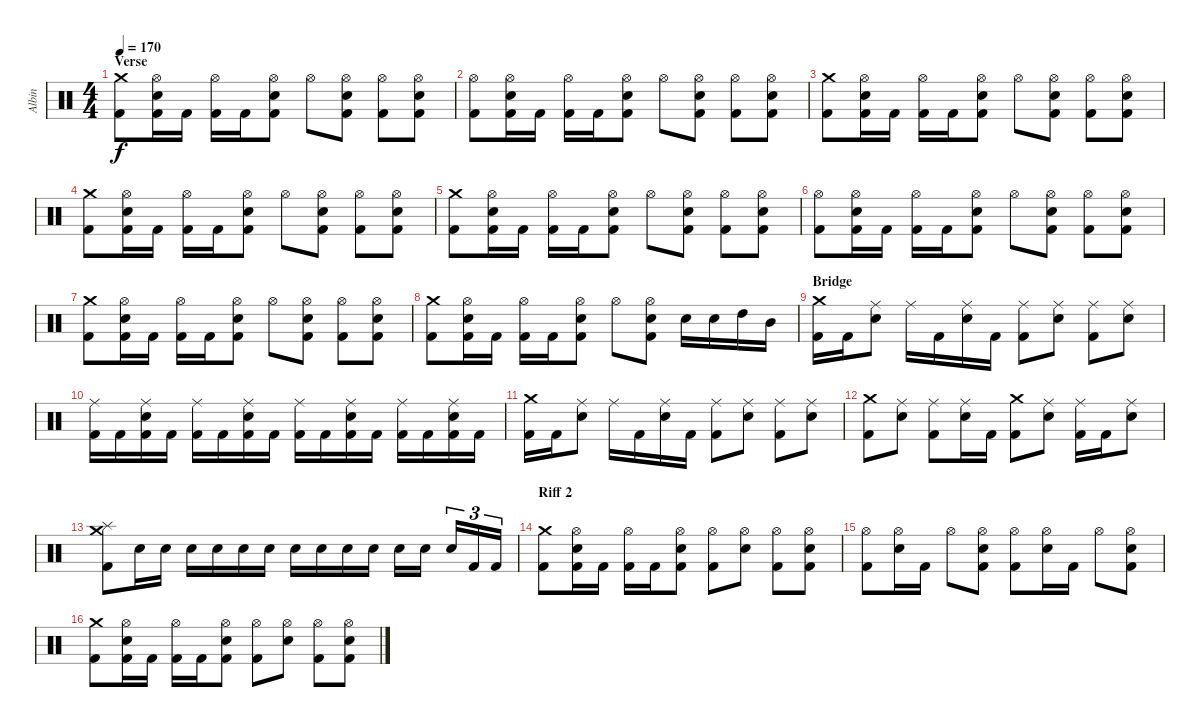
\track ("Albin" "Albin") {instrument percussion}
\staff {score}
\articulation defaults
\ts (4 4)
\section ("" "Verse")
\tempo 170
\clef neutral
\ks c
("Crash medium (hit)" "Kick (hit) 2").8{dy f} ("Hi-Hat (open)" "Electric Snare (hit)" "Kick (hit) 2").16 "Kick (hit) 2".16 ("Hi-Hat (open)" "Kick (hit) 2").16 "Kick (hit) 2".16 ("Hi-Hat (open)" "Electric Snare (hit)" "Kick (hit) 2").8 "Hi-Hat (open)".8 ("Hi-Hat (open)" "Electric Snare (hit)" "Kick (hit) 2").8 ("Hi-Hat (open)" "Kick (hit) 2").8 ("Hi-Hat (open)" "Electric Snare (hit)" "Kick (hit) 2").8 |
("Hi-Hat (open)" "Kick (hit) 2").8 ("Hi-Hat (open)" "Electric Snare (hit)" "Kick (hit) 2").16 "Kick (hit) 2".16 ("Hi-Hat (open)" "Kick (hit) 2").16 "Kick (hit) 2".16 ("Hi-Hat (open)" "Electric Snare (hit)" "Kick (hit) 2").8 "Hi-Hat (open)".8 ("Hi-Hat (open)" "Electric Snare (hit)" "Kick (hit) 2").8 ("Hi-Hat (open)" "Kick (hit) 2").8 ("Hi-Hat (open)" "Electric Snare (hit)" "Kick (hit) 2").8 |
("Crash medium (hit)" "Kick (hit) 2").8 ("Hi-Hat (open)" "Electric Snare (hit)" "Kick (hit) 2").16 "Kick (hit) 2".16 ("Hi-Hat (open)" "Kick (hit) 2").16 "Kick (hit) 2".16 ("Hi-Hat (open)" "Electric Snare (hit)" "Kick (hit) 2").8 "Hi-Hat (open)".8 ("Hi-Hat (open)" "Electric Snare (hit)" "Kick (hit) 2").8 ("Hi-Hat (open)" "Kick (hit) 2").8 ("Hi-Hat (open)" "Electric Snare (hit)" "Kick (hit) 2").8 |
("Crash medium (hit)" "Kick (hit) 2").8 ("Hi-Hat (open)" "Electric Snare (hit)" "Kick (hit) 2").16 "Kick (hit) 2".16 ("Hi-Hat (open)" "Kick (hit) 2").16 "Kick (hit) 2".16 ("Hi-Hat (open)" "Electric Snare (hit)" "Kick (hit) 2").8 "Hi-Hat (open)".8 ("Hi-Hat (open)" "Electric Snare (hit)" "Kick (hit) 2").8 ("Hi-Hat (open)" "Kick (hit) 2").8 ("Hi-Hat (open)" "Electric Snare (hit)" "Kick (hit) 2").8 |
("Crash medium (hit)" "Kick (hit) 2").8 ("Hi-Hat (open)" "Electric Snare (hit)" "Kick (hit) 2").16 "Kick (hit) 2".16 ("Hi-Hat (open)" "Kick (hit) 2").16 "Kick (hit) 2".16 ("Hi-Hat (open)" "Electric Snare (hit)" "Kick (hit) 2").8 "Hi-Hat (open)".8 ("Hi-Hat (open)" "Electric Snare (hit)" "Kick (hit) 2").8 ("Hi-Hat (open)" "Kick (hit) 2").8 ("Hi-Hat (open)" "Electric Snare (hit)" "Kick (hit) 2").8 |
("Hi-Hat (open)" "Kick (hit) 2").8 ("Hi-Hat (open)" "Electric Snare (hit)" "Kick (hit) 2").16 "Kick (hit) 2".16 ("Hi-Hat (open)" "Kick (hit) 2").16 "Kick (hit) 2".16 ("Hi-Hat (open)" "Electric Snare (hit)" "Kick (hit) 2").8 "Hi-Hat (open)".8 ("Hi-Hat (open)" "Electric Snare (hit)" "Kick (hit) 2").8 ("Hi-Hat (open)" "Kick (hit) 2").8 ("Hi-Hat (open)" "Electric Snare (hit)" "Kick (hit) 2").8 |
("Crash medium (hit)" "Kick (hit) 2").8 ("Hi-Hat (open)" "Electric Snare (hit)" "Kick (hit) 2").16 "Kick (hit) 2".16 ("Hi-Hat (open)" "Kick (hit) 2").16 "Kick (hit) 2".16 ("Hi-Hat (open)" "Electric Snare (hit)" "Kick (hit) 2").8 "Hi-Hat (open)".8 ("Hi-Hat (open)" "Electric Snare (hit)" "Kick (hit) 2").8 ("Hi-Hat (open)" "Kick (hit) 2").8 ("Hi-Hat (open)" "Electric Snare (hit)" "Kick (hit) 2").8 |
("Crash medium (hit)" "Kick (hit) 2").8 ("Hi-Hat (open)" "Electric Snare (hit)" "Kick (hit) 2").16 "Kick (hit) 2".16 ("Hi-Hat (open)" "Kick (hit) 2").16 "Kick (hit) 2".16 ("Hi-Hat (open)" "Electric Snare (hit)" "Kick (hit) 2").8 "Hi-Hat (open)".8 ("Hi-Hat (open)" "Electric Snare (hit)" "Kick (hit) 2").8 "Electric Snare (hit)".16 "Electric Snare (hit)".16 "High Tom (hit)".16 "Mid Tom (hit)".16 |
\section ("" "Bridge")
("Crash medium (hit)" "Kick (hit) 2").16 "Kick (hit) 2".16 ("Ride (middle)" "Electric Snare (hit)").8 "Ride (middle)".16 "Kick (hit) 2".16 ("Ride (middle)" "Electric Snare (hit)").16 "Kick (hit) 2".16 ("Ride (middle)" "Kick (hit) 2").8 ("Ride (middle)" "Electric Snare (hit)").8 ("Ride (middle)" "Kick (hit) 2").8 ("Ride (middle)" "Electric Snare (hit)").8 |
("Ride (middle)" "Kick (hit) 2").16 "Kick (hit) 2".16 ("Ride (middle)" "Electric Snare (hit)" "Kick (hit) 2").16 "Kick (hit) 2".16 ("Ride (middle)" "Kick (hit) 2").16 "Kick (hit) 2".16 ("Ride (middle)" "Electric Snare (hit)" "Kick (hit) 2").16 "Kick (hit) 2".16 ("Ride (middle)" "Kick (hit) 2").16 "Kick (hit) 2".16 ("Ride (middle)" "Electric Snare (hit)" "Kick (hit) 2").16 "Kick (hit) 2".16 ("Ride (middle)" "Kick (hit) 2").16 "Kick (hit) 2".16 ("Ride (middle)" "Electric Snare (hit)" "Kick (hit) 2").16 "Kick (hit) 2".16 |
("Crash medium (hit)" "Kick (hit) 2").16 "Kick (hit) 2".16 ("Ride (middle)" "Electric Snare (hit)").8 "Ride (middle)".16 "Kick (hit) 2".16 ("Ride (middle)" "Electric Snare (hit)").16 "Kick (hit) 2".16 ("Ride (middle)" "Kick (hit) 2").8 ("Ride (middle)" "Electric Snare (hit)").8 ("Ride (middle)" "Kick (hit) 2").8 ("Ride (middle)" "Electric Snare (hit)").8 |
("Crash medium (hit)" "Kick (hit) 2").8 ("Ride (middle)" "Electric Snare (hit)").8 ("Ride (middle)" "Kick (hit) 2").8 ("Ride (middle)" "Electric Snare (hit)").16 "Kick (hit) 2".16 ("Crash medium (hit)" "Kick (hit) 2").8 ("Ride (middle)" "Electric Snare (hit)").8 ("Ride (middle)" "Kick (hit) 2").16 "Kick (hit) 2".16 ("Ride (middle)" "Electric Snare (hit)").8 |
("Crash medium (hit)" "Splash (hit)" "Kick (hit) 2").8 "Electric Snare (hit)".16 "Electric Snare (hit)".16 "Electric Snare (hit)".16 "Electric Snare (hit)".16 "Electric Snare (hit)".16 "Electric Snare (hit)".16 "Electric Snare (hit)".16 "Electric Snare (hit)".16 "Electric Snare (hit)".16 "Electric Snare (hit)".16 "Electric Snare (hit)".16 "Electric Snare (hit)".16 "Electric Snare (hit)".16{tu (3 2)} "Kick (hit) 2".16{tu (3 2)} "Kick (hit) 2".16{tu (3 2)} |
\section ("" "Riff 2")
("Crash medium (hit)" "Kick (hit) 2").8 ("Hi-Hat (open)" "Electric Snare (hit)" "Kick (hit) 2").16 "Kick (hit) 2".16 ("Hi-Hat (open)" "Kick (hit) 2").16 "Kick (hit) 2".16 ("Hi-Hat (open)" "Electric Snare (hit)" "Kick (hit) 2").8 ("Hi-Hat (open)" "Kick (hit) 2").8 ("Hi-Hat (open)" "Electric Snare (hit)").8 ("Hi-Hat (open)" "Kick (hit) 2").8 ("Hi-Hat (open)" "Electric Snare (hit)" "Kick (hit) 2").8 |
("Hi-Hat (open)" "Kick (hit) 2").8 ("Hi-Hat (open)" "Electric Snare (hit)").16 "Kick (hit) 2".16 "Hi-Hat (open)".8 ("Hi-Hat (open)" "Electric Snare (hit)" "Kick (hit) 2").8 ("Hi-Hat (open)" "Kick (hit) 2").8 ("Hi-Hat (open)" "Electric Snare (hit)").16 "Kick (hit) 2".16 "Hi-Hat (open)".8 ("Hi-Hat (open)" "Electric Snare (hit)" "Kick (hit) 2").8 |
("Crash medium (hit)" "Kick (hit) 2").8 ("Hi-Hat (open)" "Electric Snare (hit)" "Kick (hit) 2").16 "Kick (hit) 2".16 ("Hi-Hat (open)" "Kick (hit) 2").16 "Kick (hit) 2".16 ("Hi-Hat (open)" "Electric Snare (hit)" "Kick (hit) 2").8 ("Hi-Hat (open)" "Kick (hit) 2").8 ("Hi-Hat (open)" "Electric Snare (hit)").8 ("Hi-Hat (open)" "Kick (hit) 2").8 ("Hi-Hat (open)" "Electric Snare (hit)" "Kick (hit) 2").8
